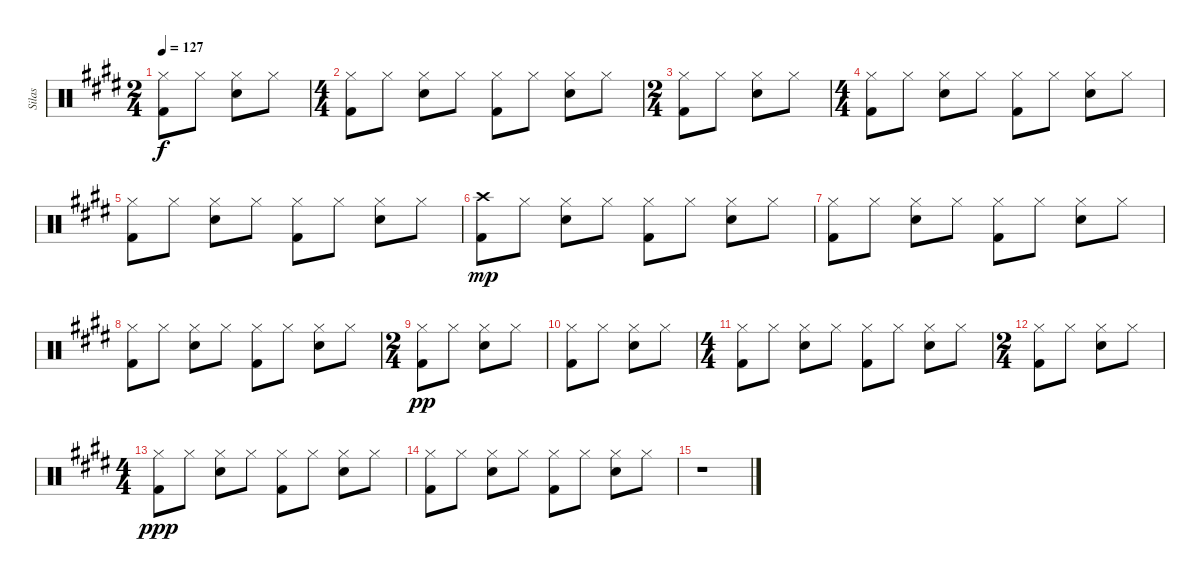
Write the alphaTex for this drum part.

\track ("Silas" "Silas") {instrument percussion}
\staff {score}
\articulation defaults
\ts (2 4)
\tempo 127
\clef neutral
\ks e
("Hi-Hat (closed)" "Kick (hit) 2").8{dy f} "Hi-Hat (closed)".8 ("Hi-Hat (closed)" "Snare (hit) 2").8 "Hi-Hat (closed)".8 |
\ts (4 4)
("Hi-Hat (closed)" "Kick (hit) 2").8 "Hi-Hat (closed)".8 ("Hi-Hat (closed)" "Snare (hit) 2").8 "Hi-Hat (closed)".8 ("Hi-Hat (closed)" "Kick (hit) 2").8 "Hi-Hat (closed)".8 ("Hi-Hat (closed)" "Snare (hit) 2").8 "Hi-Hat (closed)".8 |
\ts (2 4)
("Hi-Hat (closed)" "Kick (hit) 2").8 "Hi-Hat (closed)".8 ("Hi-Hat (closed)" "Snare (hit) 2").8 "Hi-Hat (closed)".8 |
\ts (4 4)
("Hi-Hat (closed)" "Kick (hit) 2").8 "Hi-Hat (closed)".8 ("Hi-Hat (closed)" "Snare (hit) 2").8 "Hi-Hat (closed)".8 ("Hi-Hat (closed)" "Kick (hit) 2").8 "Hi-Hat (closed)".8 ("Hi-Hat (closed)" "Snare (hit) 2").8 "Hi-Hat (closed)".8 |
("Hi-Hat (closed)" "Kick (hit) 2").8 "Hi-Hat (closed)".8 ("Hi-Hat (closed)" "Snare (hit) 2").8 "Hi-Hat (closed)".8 ("Hi-Hat (closed)" "Kick (hit) 2").8 "Hi-Hat (closed)".8 ("Hi-Hat (closed)" "Snare (hit) 2").8 "Hi-Hat (closed)".8 |
("Crash high (hit)" "Kick (hit) 2").8{dy mp} "Hi-Hat (closed)".8 ("Hi-Hat (closed)" "Snare (hit) 2").8 "Hi-Hat (closed)".8 ("Hi-Hat (closed)" "Kick (hit) 2").8 "Hi-Hat (closed)".8 ("Hi-Hat (closed)" "Snare (hit) 2").8 "Hi-Hat (closed)".8 |
("Hi-Hat (closed)" "Kick (hit) 2").8 "Hi-Hat (closed)".8 ("Hi-Hat (closed)" "Snare (hit) 2").8 "Hi-Hat (closed)".8 ("Hi-Hat (closed)" "Kick (hit) 2").8 "Hi-Hat (closed)".8 ("Hi-Hat (closed)" "Snare (hit) 2").8 "Hi-Hat (closed)".8 |
("Hi-Hat (closed)" "Kick (hit) 2").8 "Hi-Hat (closed)".8 ("Hi-Hat (closed)" "Snare (hit) 2").8 "Hi-Hat (closed)".8 ("Hi-Hat (closed)" "Kick (hit) 2").8 "Hi-Hat (closed)".8 ("Hi-Hat (closed)" "Snare (hit) 2").8 "Hi-Hat (closed)".8 |
\ts (2 4)
("Hi-Hat (closed)" "Kick (hit) 2").8{dy pp} "Hi-Hat (closed)".8 ("Hi-Hat (closed)" "Snare (hit) 2").8 "Hi-Hat (closed)".8 |
("Hi-Hat (closed)" "Kick (hit) 2").8 "Hi-Hat (closed)".8 ("Hi-Hat (closed)" "Snare (hit) 2").8 "Hi-Hat (closed)".8 |
\ts (4 4)
("Hi-Hat (closed)" "Kick (hit) 2").8 "Hi-Hat (closed)".8 ("Hi-Hat (closed)" "Snare (hit) 2").8 "Hi-Hat (closed)".8 ("Hi-Hat (closed)" "Kick (hit) 2").8 "Hi-Hat (closed)".8 ("Hi-Hat (closed)" "Snare (hit) 2").8 "Hi-Hat (closed)".8 |
\ts (2 4)
("Hi-Hat (closed)" "Kick (hit) 2").8 "Hi-Hat (closed)".8 ("Hi-Hat (closed)" "Snare (hit) 2").8 "Hi-Hat (closed)".8 |
\ts (4 4)
("Hi-Hat (closed)" "Kick (hit) 2").8{dy ppp} "Hi-Hat (closed)".8 ("Hi-Hat (closed)" "Snare (hit) 2").8 "Hi-Hat (closed)".8 ("Hi-Hat (closed)" "Kick (hit) 2").8 "Hi-Hat (closed)".8 ("Hi-Hat (closed)" "Snare (hit) 2").8 "Hi-Hat (closed)".8 |
("Hi-Hat (closed)" "Kick (hit) 2").8 "Hi-Hat (closed)".8 ("Hi-Hat (closed)" "Snare (hit) 2").8 "Hi-Hat (closed)".8 ("Hi-Hat (closed)" "Kick (hit) 2").8 "Hi-Hat (closed)".8 ("Hi-Hat (closed)" "Snare (hit) 2").8 "Hi-Hat (closed)".8 |
r.1
